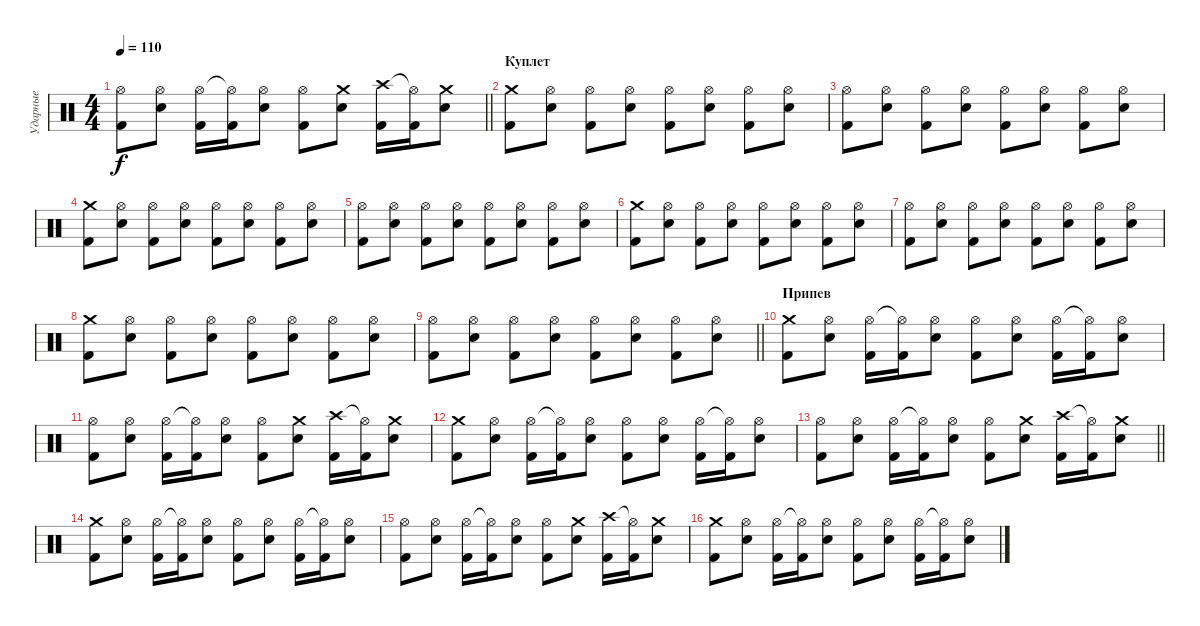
\track ("Ударные" "Ударные") {instrument percussion}
\staff {score}
\articulation defaults
\ts (4 4)
\tempo 110
\clef neutral
\barLineRight lightlight
\ks c
("Hi-Hat (open)" "Kick (hit) 2").8{dy f} ("Hi-Hat (open)" "Snare (hit) 2").8 ("Hi-Hat (open)" "Kick (hit) 2").16 ("Hi-Hat (open)"{t} "Kick (hit) 2").16 ("Hi-Hat (open)" "Snare (hit) 2").8 ("Hi-Hat (open)" "Kick (hit) 2").8 ("Crash medium (hit)" "Snare (hit) 2").8 ("Crash high (hit)" "Kick (hit) 2").16 ("Hi-Hat (open)"{t} "Kick (hit) 2").16 ("Crash medium (hit)" "Snare (hit) 2").8 |
\section ("" "Куплет")
("Crash medium (hit)" "Kick (hit) 2").8 ("Hi-Hat (open)" "Snare (hit) 2").8 ("Hi-Hat (open)" "Kick (hit) 2").8 ("Hi-Hat (open)" "Snare (hit) 2").8 ("Hi-Hat (open)" "Kick (hit) 2").8 ("Hi-Hat (open)" "Snare (hit) 2").8 ("Hi-Hat (open)" "Kick (hit) 2").8 ("Hi-Hat (open)" "Snare (hit) 2").8 |
("Hi-Hat (open)" "Kick (hit) 2").8 ("Hi-Hat (open)" "Snare (hit) 2").8 ("Hi-Hat (open)" "Kick (hit) 2").8 ("Hi-Hat (open)" "Snare (hit) 2").8 ("Hi-Hat (open)" "Kick (hit) 2").8 ("Hi-Hat (open)" "Snare (hit) 2").8 ("Hi-Hat (open)" "Kick (hit) 2").8 ("Hi-Hat (open)" "Snare (hit) 2").8 |
("Crash medium (hit)" "Kick (hit) 2").8 ("Hi-Hat (open)" "Snare (hit) 2").8 ("Hi-Hat (open)" "Kick (hit) 2").8 ("Hi-Hat (open)" "Snare (hit) 2").8 ("Hi-Hat (open)" "Kick (hit) 2").8 ("Hi-Hat (open)" "Snare (hit) 2").8 ("Hi-Hat (open)" "Kick (hit) 2").8 ("Hi-Hat (open)" "Snare (hit) 2").8 |
("Hi-Hat (open)" "Kick (hit) 2").8 ("Hi-Hat (open)" "Snare (hit) 2").8 ("Hi-Hat (open)" "Kick (hit) 2").8 ("Hi-Hat (open)" "Snare (hit) 2").8 ("Hi-Hat (open)" "Kick (hit) 2").8 ("Hi-Hat (open)" "Snare (hit) 2").8 ("Hi-Hat (open)" "Kick (hit) 2").8 ("Hi-Hat (open)" "Snare (hit) 2").8 |
("Crash medium (hit)" "Kick (hit) 2").8 ("Hi-Hat (open)" "Snare (hit) 2").8 ("Hi-Hat (open)" "Kick (hit) 2").8 ("Hi-Hat (open)" "Snare (hit) 2").8 ("Hi-Hat (open)" "Kick (hit) 2").8 ("Hi-Hat (open)" "Snare (hit) 2").8 ("Hi-Hat (open)" "Kick (hit) 2").8 ("Hi-Hat (open)" "Snare (hit) 2").8 |
("Hi-Hat (open)" "Kick (hit) 2").8 ("Hi-Hat (open)" "Snare (hit) 2").8 ("Hi-Hat (open)" "Kick (hit) 2").8 ("Hi-Hat (open)" "Snare (hit) 2").8 ("Hi-Hat (open)" "Kick (hit) 2").8 ("Hi-Hat (open)" "Snare (hit) 2").8 ("Hi-Hat (open)" "Kick (hit) 2").8 ("Hi-Hat (open)" "Snare (hit) 2").8 |
("Crash medium (hit)" "Kick (hit) 2").8 ("Hi-Hat (open)" "Snare (hit) 2").8 ("Hi-Hat (open)" "Kick (hit) 2").8 ("Hi-Hat (open)" "Snare (hit) 2").8 ("Hi-Hat (open)" "Kick (hit) 2").8 ("Hi-Hat (open)" "Snare (hit) 2").8 ("Hi-Hat (open)" "Kick (hit) 2").8 ("Hi-Hat (open)" "Snare (hit) 2").8 |
\barLineRight lightlight
("Hi-Hat (open)" "Kick (hit) 2").8 ("Hi-Hat (open)" "Snare (hit) 2").8 ("Hi-Hat (open)" "Kick (hit) 2").8 ("Hi-Hat (open)" "Snare (hit) 2").8 ("Hi-Hat (open)" "Kick (hit) 2").8 ("Hi-Hat (open)" "Snare (hit) 2").8 ("Hi-Hat (open)" "Kick (hit) 2").8 ("Hi-Hat (open)" "Snare (hit) 2").8 |
\section ("" "Припев")
("Crash medium (hit)" "Kick (hit) 2").8 ("Hi-Hat (open)" "Snare (hit) 2").8 ("Hi-Hat (open)" "Kick (hit) 2").16 ("Hi-Hat (open)"{t} "Kick (hit) 2").16 ("Hi-Hat (open)" "Snare (hit) 2").8 ("Hi-Hat (open)" "Kick (hit) 2").8 ("Hi-Hat (open)" "Snare (hit) 2").8 ("Hi-Hat (open)" "Kick (hit) 2").16 ("Hi-Hat (open)"{t} "Kick (hit) 2").16 ("Hi-Hat (open)" "Snare (hit) 2").8 |
("Hi-Hat (open)" "Kick (hit) 2").8 ("Hi-Hat (open)" "Snare (hit) 2").8 ("Hi-Hat (open)" "Kick (hit) 2").16 ("Hi-Hat (open)"{t} "Kick (hit) 2").16 ("Hi-Hat (open)" "Snare (hit) 2").8 ("Hi-Hat (open)" "Kick (hit) 2").8 ("Crash medium (hit)" "Snare (hit) 2").8 ("Crash high (hit)" "Kick (hit) 2").16 ("Hi-Hat (open)"{t} "Kick (hit) 2").16 ("Crash medium (hit)" "Snare (hit) 2").8 |
("Crash medium (hit)" "Kick (hit) 2").8 ("Hi-Hat (open)" "Snare (hit) 2").8 ("Hi-Hat (open)" "Kick (hit) 2").16 ("Hi-Hat (open)"{t} "Kick (hit) 2").16 ("Hi-Hat (open)" "Snare (hit) 2").8 ("Hi-Hat (open)" "Kick (hit) 2").8 ("Hi-Hat (open)" "Snare (hit) 2").8 ("Hi-Hat (open)" "Kick (hit) 2").16 ("Hi-Hat (open)"{t} "Kick (hit) 2").16 ("Hi-Hat (open)" "Snare (hit) 2").8 |
\barLineRight lightlight
("Hi-Hat (open)" "Kick (hit) 2").8 ("Hi-Hat (open)" "Snare (hit) 2").8 ("Hi-Hat (open)" "Kick (hit) 2").16 ("Hi-Hat (open)"{t} "Kick (hit) 2").16 ("Hi-Hat (open)" "Snare (hit) 2").8 ("Hi-Hat (open)" "Kick (hit) 2").8 ("Crash medium (hit)" "Snare (hit) 2").8 ("Crash high (hit)" "Kick (hit) 2").16 ("Hi-Hat (open)"{t} "Kick (hit) 2").16 ("Crash medium (hit)" "Snare (hit) 2").8 |
("Crash medium (hit)" "Kick (hit) 2").8 ("Hi-Hat (open)" "Snare (hit) 2").8 ("Hi-Hat (open)" "Kick (hit) 2").16 ("Hi-Hat (open)"{t} "Kick (hit) 2").16 ("Hi-Hat (open)" "Snare (hit) 2").8 ("Hi-Hat (open)" "Kick (hit) 2").8 ("Hi-Hat (open)" "Snare (hit) 2").8 ("Hi-Hat (open)" "Kick (hit) 2").16 ("Hi-Hat (open)"{t} "Kick (hit) 2").16 ("Hi-Hat (open)" "Snare (hit) 2").8 |
("Hi-Hat (open)" "Kick (hit) 2").8 ("Hi-Hat (open)" "Snare (hit) 2").8 ("Hi-Hat (open)" "Kick (hit) 2").16 ("Hi-Hat (open)"{t} "Kick (hit) 2").16 ("Hi-Hat (open)" "Snare (hit) 2").8 ("Hi-Hat (open)" "Kick (hit) 2").8 ("Crash medium (hit)" "Snare (hit) 2").8 ("Crash high (hit)" "Kick (hit) 2").16 ("Hi-Hat (open)"{t} "Kick (hit) 2").16 ("Crash medium (hit)" "Snare (hit) 2").8 |
("Crash medium (hit)" "Kick (hit) 2").8 ("Hi-Hat (open)" "Snare (hit) 2").8 ("Hi-Hat (open)" "Kick (hit) 2").16 ("Hi-Hat (open)"{t} "Kick (hit) 2").16 ("Hi-Hat (open)" "Snare (hit) 2").8 ("Hi-Hat (open)" "Kick (hit) 2").8 ("Hi-Hat (open)" "Snare (hit) 2").8 ("Hi-Hat (open)" "Kick (hit) 2").16 ("Hi-Hat (open)"{t} "Kick (hit) 2").16 ("Hi-Hat (open)" "Snare (hit) 2").8
